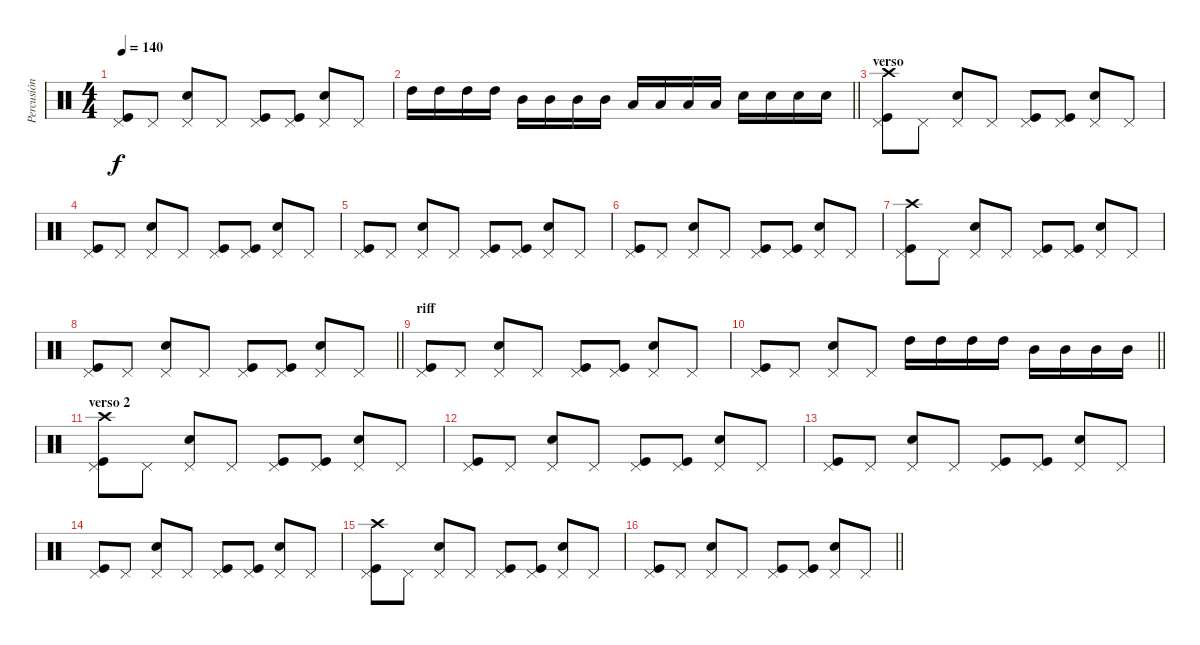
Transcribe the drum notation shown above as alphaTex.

\track ("Percusión" "Percusión") {instrument percussion}
\staff {score}
\articulation defaults
\ts (4 4)
\tempo 140
\clef neutral
\ks c
("Kick (hit)" "Pedal Hi-Hat (hit)").8{dy f} "Pedal Hi-Hat (hit)".8 ("Snare (hit) 2" "Pedal Hi-Hat (hit)").8 "Pedal Hi-Hat (hit)".8 ("Kick (hit)" "Pedal Hi-Hat (hit)").8 ("Kick (hit)" "Pedal Hi-Hat (hit)").8 ("Snare (hit) 2" "Pedal Hi-Hat (hit)").8 "Pedal Hi-Hat (hit)".8 |
\barLineRight lightlight "High Tom (hit)".16 "High Tom (hit)".16 "High Tom (hit)".16 "High Tom (hit)".16 "Mid Tom (hit)".16 "Mid Tom (hit)".16 "Mid Tom (hit)".16 "Mid Tom (hit)".16 "Low Tom (hit)".16 "Low Tom (hit)".16 "Low Tom (hit)".16 "Low Tom (hit)".16 "Snare (hit) 2".16 "Snare (hit) 2".16 "Snare (hit) 2".16 "Snare (hit) 2".16
|
\section ("" "verso")
("Crash high (hit)" "Kick (hit)" "Pedal Hi-Hat (hit)").8 "Pedal Hi-Hat (hit)".8 ("Snare (hit) 2" "Pedal Hi-Hat (hit)").8 "Pedal Hi-Hat (hit)".8 ("Kick (hit)" "Pedal Hi-Hat (hit)").8 ("Kick (hit)" "Pedal Hi-Hat (hit)").8 ("Snare (hit) 2" "Pedal Hi-Hat (hit)").8 "Pedal Hi-Hat (hit)".8 |
("Kick (hit)" "Pedal Hi-Hat (hit)").8 "Pedal Hi-Hat (hit)".8 ("Snare (hit) 2" "Pedal Hi-Hat (hit)").8 "Pedal Hi-Hat (hit)".8 ("Kick (hit)" "Pedal Hi-Hat (hit)").8 ("Kick (hit)" "Pedal Hi-Hat (hit)").8 ("Snare (hit) 2" "Pedal Hi-Hat (hit)").8 "Pedal Hi-Hat (hit)".8 |
("Kick (hit)" "Pedal Hi-Hat (hit)").8 "Pedal Hi-Hat (hit)".8 ("Snare (hit) 2" "Pedal Hi-Hat (hit)").8 "Pedal Hi-Hat (hit)".8 ("Kick (hit)" "Pedal Hi-Hat (hit)").8 ("Kick (hit)" "Pedal Hi-Hat (hit)").8 ("Snare (hit) 2" "Pedal Hi-Hat (hit)").8 "Pedal Hi-Hat (hit)".8 |
("Kick (hit)" "Pedal Hi-Hat (hit)").8 "Pedal Hi-Hat (hit)".8 ("Snare (hit) 2" "Pedal Hi-Hat (hit)").8 "Pedal Hi-Hat (hit)".8 ("Kick (hit)" "Pedal Hi-Hat (hit)").8 ("Kick (hit)" "Pedal Hi-Hat (hit)").8 ("Snare (hit) 2" "Pedal Hi-Hat (hit)").8 "Pedal Hi-Hat (hit)".8 |
("Crash high (hit)" "Kick (hit)" "Pedal Hi-Hat (hit)").8 "Pedal Hi-Hat (hit)".8 ("Snare (hit) 2" "Pedal Hi-Hat (hit)").8 "Pedal Hi-Hat (hit)".8 ("Kick (hit)" "Pedal Hi-Hat (hit)").8 ("Kick (hit)" "Pedal Hi-Hat (hit)").8 ("Snare (hit) 2" "Pedal Hi-Hat (hit)").8 "Pedal Hi-Hat (hit)".8 |
\barLineRight lightlight
("Kick (hit)" "Pedal Hi-Hat (hit)").8 "Pedal Hi-Hat (hit)".8 ("Snare (hit) 2" "Pedal Hi-Hat (hit)").8 "Pedal Hi-Hat (hit)".8 ("Kick (hit)" "Pedal Hi-Hat (hit)").8 ("Kick (hit)" "Pedal Hi-Hat (hit)").8 ("Snare (hit) 2" "Pedal Hi-Hat (hit)").8 "Pedal Hi-Hat (hit)".8 |
\section ("" "riff")
("Kick (hit)" "Pedal Hi-Hat (hit)").8 "Pedal Hi-Hat (hit)".8 ("Snare (hit) 2" "Pedal Hi-Hat (hit)").8 "Pedal Hi-Hat (hit)".8 ("Kick (hit)" "Pedal Hi-Hat (hit)").8 ("Kick (hit)" "Pedal Hi-Hat (hit)").8 ("Snare (hit) 2" "Pedal Hi-Hat (hit)").8 "Pedal Hi-Hat (hit)".8 |
\barLineRight lightlight
("Kick (hit)" "Pedal Hi-Hat (hit)").8 "Pedal Hi-Hat (hit)".8 ("Snare (hit) 2" "Pedal Hi-Hat (hit)").8 "Pedal Hi-Hat (hit)".8 "High Tom (hit)".16 "High Tom (hit)".16 "High Tom (hit)".16 "High Tom (hit)".16 "Mid Tom (hit)".16 "Mid Tom (hit)".16 "Mid Tom (hit)".16 "Mid Tom (hit)".16 |
\section ("" "verso 2")
("Crash high (hit)" "Kick (hit)" "Pedal Hi-Hat (hit)").8 "Pedal Hi-Hat (hit)".8 ("Snare (hit) 2" "Pedal Hi-Hat (hit)").8 "Pedal Hi-Hat (hit)".8 ("Kick (hit)" "Pedal Hi-Hat (hit)").8 ("Kick (hit)" "Pedal Hi-Hat (hit)").8 ("Snare (hit) 2" "Pedal Hi-Hat (hit)").8 "Pedal Hi-Hat (hit)".8 |
("Kick (hit)" "Pedal Hi-Hat (hit)").8 "Pedal Hi-Hat (hit)".8 ("Snare (hit) 2" "Pedal Hi-Hat (hit)").8 "Pedal Hi-Hat (hit)".8 ("Kick (hit)" "Pedal Hi-Hat (hit)").8 ("Kick (hit)" "Pedal Hi-Hat (hit)").8 ("Snare (hit) 2" "Pedal Hi-Hat (hit)").8 "Pedal Hi-Hat (hit)".8 |
("Kick (hit)" "Pedal Hi-Hat (hit)").8 "Pedal Hi-Hat (hit)".8 ("Snare (hit) 2" "Pedal Hi-Hat (hit)").8 "Pedal Hi-Hat (hit)".8 ("Kick (hit)" "Pedal Hi-Hat (hit)").8 ("Kick (hit)" "Pedal Hi-Hat (hit)").8 ("Snare (hit) 2" "Pedal Hi-Hat (hit)").8 "Pedal Hi-Hat (hit)".8 |
("Kick (hit)" "Pedal Hi-Hat (hit)").8 "Pedal Hi-Hat (hit)".8 ("Snare (hit) 2" "Pedal Hi-Hat (hit)").8 "Pedal Hi-Hat (hit)".8 ("Kick (hit)" "Pedal Hi-Hat (hit)").8 ("Kick (hit)" "Pedal Hi-Hat (hit)").8 ("Snare (hit) 2" "Pedal Hi-Hat (hit)").8 "Pedal Hi-Hat (hit)".8 |
("Crash high (hit)" "Kick (hit)" "Pedal Hi-Hat (hit)").8 "Pedal Hi-Hat (hit)".8 ("Snare (hit) 2" "Pedal Hi-Hat (hit)").8 "Pedal Hi-Hat (hit)".8 ("Kick (hit)" "Pedal Hi-Hat (hit)").8 ("Kick (hit)" "Pedal Hi-Hat (hit)").8 ("Snare (hit) 2" "Pedal Hi-Hat (hit)").8 "Pedal Hi-Hat (hit)".8 |
\barLineRight lightlight
("Kick (hit)" "Pedal Hi-Hat (hit)").8 "Pedal Hi-Hat (hit)".8 ("Snare (hit) 2" "Pedal Hi-Hat (hit)").8 "Pedal Hi-Hat (hit)".8 ("Kick (hit)" "Pedal Hi-Hat (hit)").8 ("Kick (hit)" "Pedal Hi-Hat (hit)").8 ("Snare (hit) 2" "Pedal Hi-Hat (hit)").8 "Pedal Hi-Hat (hit)".8
